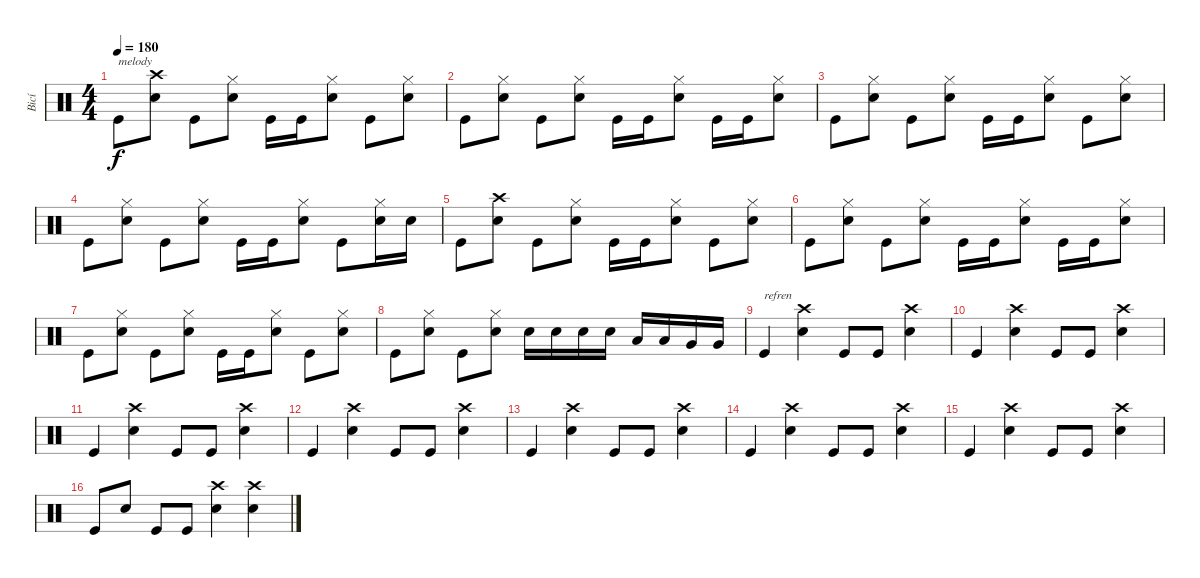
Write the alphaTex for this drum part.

\track ("Bicí" "Bicí") {instrument percussion}
\staff {score}
\articulation defaults
\ts (4 4)
\tempo 180
\clef neutral
\ks c "Kick (hit)".8{txt "melody" dy f}
("Snare (hit) 2" "Crash high (hit)").8 "Kick (hit)".8 ("Snare (hit) 2" "Hi-Hat (closed)").8 "Kick (hit)".16 "Kick (hit)".16 ("Snare (hit) 2" "Hi-Hat (closed)").8 "Kick (hit)".8 ("Snare (hit) 2" "Hi-Hat (closed)").8 |
"Kick (hit)".8 ("Snare (hit) 2" "Hi-Hat (closed)").8 "Kick (hit)".8 ("Snare (hit) 2" "Hi-Hat (closed)").8 "Kick (hit)".16 "Kick (hit)".16 ("Snare (hit) 2" "Hi-Hat (closed)").8 "Kick (hit)".16 "Kick (hit)".16 ("Snare (hit) 2" "Hi-Hat (closed)").8 |
"Kick (hit)".8 ("Snare (hit) 2" "Hi-Hat (closed)").8 "Kick (hit)".8 ("Snare (hit) 2" "Hi-Hat (closed)").8 "Kick (hit)".16 "Kick (hit)".16 ("Snare (hit) 2" "Hi-Hat (closed)").8 "Kick (hit)".8 ("Snare (hit) 2" "Hi-Hat (closed)").8 |
"Kick (hit)".8 ("Snare (hit) 2" "Hi-Hat (closed)").8 "Kick (hit)".8 ("Snare (hit) 2" "Hi-Hat (closed)").8 "Kick (hit)".16 "Kick (hit)".16 ("Snare (hit) 2" "Hi-Hat (closed)").8 "Kick (hit)".8 ("Snare (hit) 2" "Hi-Hat (closed)").16 "Snare (hit) 2".16 |
"Kick (hit)".8 ("Snare (hit) 2" "Crash high (hit)").8 "Kick (hit)".8 ("Snare (hit) 2" "Hi-Hat (closed)").8 "Kick (hit)".16 "Kick (hit)".16 ("Snare (hit) 2" "Hi-Hat (closed)").8 "Kick (hit)".8 ("Snare (hit) 2" "Hi-Hat (closed)").8 |
"Kick (hit)".8 ("Snare (hit) 2" "Hi-Hat (closed)").8 "Kick (hit)".8 ("Snare (hit) 2" "Hi-Hat (closed)").8 "Kick (hit)".16 "Kick (hit)".16 ("Snare (hit) 2" "Hi-Hat (closed)").8 "Kick (hit)".16 "Kick (hit)".16 ("Snare (hit) 2" "Hi-Hat (closed)").8 |
"Kick (hit)".8 ("Snare (hit) 2" "Hi-Hat (closed)").8 "Kick (hit)".8 ("Snare (hit) 2" "Hi-Hat (closed)").8 "Kick (hit)".16 "Kick (hit)".16 ("Snare (hit) 2" "Hi-Hat (closed)").8 "Kick (hit)".8 ("Snare (hit) 2" "Hi-Hat (closed)").8 |
"Kick (hit)".8 ("Snare (hit) 2" "Hi-Hat (closed)").8 "Kick (hit)".8 ("Snare (hit) 2" "Hi-Hat (closed)").8 "Snare (hit) 2".16 "Snare (hit) 2".16 "Snare (hit) 2".16 "Snare (hit) 2".16 "Low Tom (hit)".16 "Low Tom (hit)".16 "Very Low Tom (hit)".16 "Very Low Tom (hit)".16 |
"Kick (hit)".4{txt "refren"} ("Snare (hit) 2" "Crash high (hit)").4 "Kick (hit)".8 "Kick (hit)".8 ("Snare (hit) 2" "Crash high (hit)").4 |
"Kick (hit)".4 ("Snare (hit) 2" "Crash high (hit)").4 "Kick (hit)".8 "Kick (hit)".8 ("Snare (hit) 2" "Crash high (hit)").4 |
"Kick (hit)".4 ("Snare (hit) 2" "Crash high (hit)").4 "Kick (hit)".8 "Kick (hit)".8 ("Snare (hit) 2" "Crash high (hit)").4 |
"Kick (hit)".4 ("Snare (hit) 2" "Crash high (hit)").4 "Kick (hit)".8 "Kick (hit)".8 ("Snare (hit) 2" "Crash high (hit)").4 |
"Kick (hit)".4 ("Snare (hit) 2" "Crash high (hit)").4 "Kick (hit)".8 "Kick (hit)".8 ("Snare (hit) 2" "Crash high (hit)").4 |
"Kick (hit)".4 ("Snare (hit) 2" "Crash high (hit)").4 "Kick (hit)".8 "Kick (hit)".8 ("Snare (hit) 2" "Crash high (hit)").4 |
"Kick (hit)".4 ("Snare (hit) 2" "Crash high (hit)").4 "Kick (hit)".8 "Kick (hit)".8 ("Snare (hit) 2" "Crash high (hit)").4 |
"Kick (hit)".8 "Snare (hit) 2".8 "Kick (hit)".8 "Kick (hit)".8 ("Snare (hit) 2" "Crash high (hit)").4 ("Snare (hit) 2" "Crash high (hit)").4
